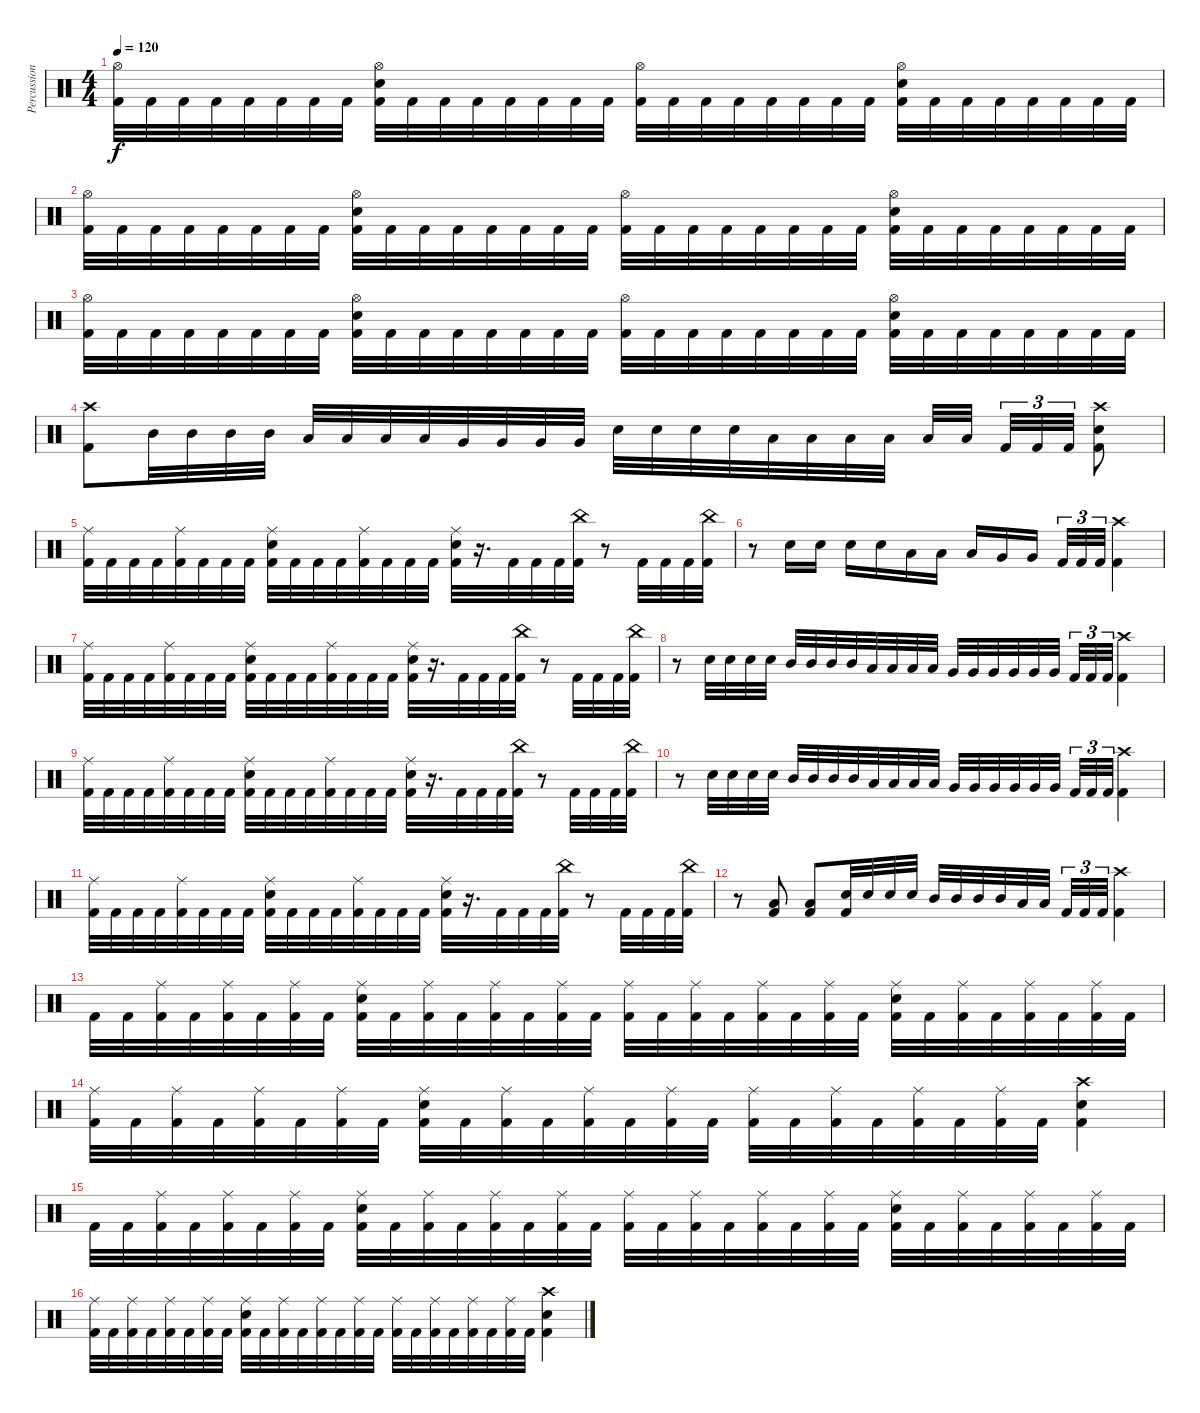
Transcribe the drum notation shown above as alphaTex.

\track ("Percussion" "Percussion") {instrument percussion}
\staff {score}
\articulation defaults
\ts (4 4)
\tempo 120
\clef neutral
\ks c
("Hi-Hat (open)" "Kick (hit) 2").32{dy f} "Kick (hit) 2".32 "Kick (hit) 2".32 "Kick (hit) 2".32 "Kick (hit) 2".32 "Kick (hit) 2".32 "Kick (hit) 2".32 "Kick (hit) 2".32 ("Hi-Hat (open)" "Snare (hit) 2" "Kick (hit) 2").32 "Kick (hit) 2".32 "Kick (hit) 2".32 "Kick (hit) 2".32 "Kick (hit) 2".32 "Kick (hit) 2".32 "Kick (hit) 2".32 "Kick (hit) 2".32 ("Hi-Hat (open)" "Kick (hit) 2").32 "Kick (hit) 2".32 "Kick (hit) 2".32 "Kick (hit) 2".32 "Kick (hit) 2".32 "Kick (hit) 2".32 "Kick (hit) 2".32 "Kick (hit) 2".32 ("Hi-Hat (open)" "Snare (hit) 2" "Kick (hit) 2").32 "Kick (hit) 2".32 "Kick (hit) 2".32 "Kick (hit) 2".32 "Kick (hit) 2".32 "Kick (hit) 2".32 "Kick (hit) 2".32 "Kick (hit) 2".32 |
("Hi-Hat (open)" "Kick (hit) 2").32 "Kick (hit) 2".32 "Kick (hit) 2".32 "Kick (hit) 2".32 "Kick (hit) 2".32 "Kick (hit) 2".32 "Kick (hit) 2".32 "Kick (hit) 2".32 ("Hi-Hat (open)" "Snare (hit) 2" "Kick (hit) 2").32 "Kick (hit) 2".32 "Kick (hit) 2".32 "Kick (hit) 2".32 "Kick (hit) 2".32 "Kick (hit) 2".32 "Kick (hit) 2".32 "Kick (hit) 2".32 ("Hi-Hat (open)" "Kick (hit) 2").32 "Kick (hit) 2".32 "Kick (hit) 2".32 "Kick (hit) 2".32 "Kick (hit) 2".32 "Kick (hit) 2".32 "Kick (hit) 2".32 "Kick (hit) 2".32 ("Hi-Hat (open)" "Snare (hit) 2" "Kick (hit) 2").32 "Kick (hit) 2".32 "Kick (hit) 2".32 "Kick (hit) 2".32 "Kick (hit) 2".32 "Kick (hit) 2".32 "Kick (hit) 2".32 "Kick (hit) 2".32 |
("Hi-Hat (open)" "Kick (hit) 2").32 "Kick (hit) 2".32 "Kick (hit) 2".32 "Kick (hit) 2".32 "Kick (hit) 2".32 "Kick (hit) 2".32 "Kick (hit) 2".32 "Kick (hit) 2".32 ("Hi-Hat (open)" "Snare (hit) 2" "Kick (hit) 2").32 "Kick (hit) 2".32 "Kick (hit) 2".32 "Kick (hit) 2".32 "Kick (hit) 2".32 "Kick (hit) 2".32 "Kick (hit) 2".32 "Kick (hit) 2".32 ("Hi-Hat (open)" "Kick (hit) 2").32 "Kick (hit) 2".32 "Kick (hit) 2".32 "Kick (hit) 2".32 "Kick (hit) 2".32 "Kick (hit) 2".32 "Kick (hit) 2".32 "Kick (hit) 2".32 ("Hi-Hat (open)" "Snare (hit) 2" "Kick (hit) 2").32 "Kick (hit) 2".32 "Kick (hit) 2".32 "Kick (hit) 2".32 "Kick (hit) 2".32 "Kick (hit) 2".32 "Kick (hit) 2".32 "Kick (hit) 2".32 |
("Crash high (hit)" "Kick (hit) 2").8 "Mid Tom (hit)".32 "Mid Tom (hit)".32 "Mid Tom (hit)".32 "Mid Tom (hit)".32 "Low Tom (hit)".32 "Low Tom (hit)".32 "Low Tom (hit)".32 "Low Tom (hit)".32 "Very Low Tom (hit)".32 "Very Low Tom (hit)".32 "Very Low Tom (hit)".32 "Very Low Tom (hit)".32 "Snare (hit) 2".32 "Snare (hit) 2".32 "Snare (hit) 2".32 "Snare (hit) 2".32 "Low Tom (hit)".32 "Low Tom (hit)".32 "Low Tom (hit)".32 "Low Tom (hit)".32 "Low Tom (hit)".32 "Low Tom (hit)".32 "Kick (hit) 2".32{tu (3 2)} "Kick (hit) 2".32{tu (3 2)} "Kick (hit) 2".32{tu (3 2)} ("Crash high (hit)" "Snare (hit) 2" "Kick (hit) 2").8 |
("Ride (middle)" "Kick (hit) 2").32 "Kick (hit) 2".32 "Kick (hit) 2".32 "Kick (hit) 2".32 ("Ride (middle)" "Kick (hit) 2").32 "Kick (hit) 2".32 "Kick (hit) 2".32 "Kick (hit) 2".32 ("Ride (middle)" "Snare (hit) 2" "Kick (hit) 2").32 "Kick (hit) 2".32 "Kick (hit) 2".32 "Kick (hit) 2".32 ("Ride (middle)" "Kick (hit) 2").32 "Kick (hit) 2".32 "Kick (hit) 2".32 "Kick (hit) 2".32 ("Ride (middle)" "Snare (hit) 2" "Kick (hit) 2").32 r.16{d} "Kick (hit) 2".32 "Kick (hit) 2".32 "Kick (hit) 2".32 ("China (hit)" "Kick (hit) 2").32 r.8 "Kick (hit) 2".32 "Kick (hit) 2".32 "Kick (hit) 2".32 ("China (hit)" "Kick (hit) 2").32 |
r.8 "Snare (hit) 2".16 "Snare (hit) 2".16 "Snare (hit) 2".16 "Snare (hit) 2".16 "Low Tom (hit)".16 "Low Tom (hit)".16 "Low Tom (hit)".16 "Very Low Tom (hit)".16 "Very Low Tom (hit)".16 "Kick (hit) 2".32{tu (3 2)} "Kick (hit) 2".32{tu (3 2)} "Kick (hit) 2".32{tu (3 2)} ("Crash high (hit)" "Kick (hit) 2").4 |
("Ride (middle)" "Kick (hit) 2").32 "Kick (hit) 2".32 "Kick (hit) 2".32 "Kick (hit) 2".32 ("Ride (middle)" "Kick (hit) 2").32 "Kick (hit) 2".32 "Kick (hit) 2".32 "Kick (hit) 2".32 ("Ride (middle)" "Snare (hit) 2" "Kick (hit) 2").32 "Kick (hit) 2".32 "Kick (hit) 2".32 "Kick (hit) 2".32 ("Ride (middle)" "Kick (hit) 2").32 "Kick (hit) 2".32 "Kick (hit) 2".32 "Kick (hit) 2".32 ("Ride (middle)" "Snare (hit) 2" "Kick (hit) 2").32 r.16{d} "Kick (hit) 2".32 "Kick (hit) 2".32 "Kick (hit) 2".32 ("China (hit)" "Kick (hit) 2").32 r.8 "Kick (hit) 2".32 "Kick (hit) 2".32 "Kick (hit) 2".32 ("China (hit)" "Kick (hit) 2").32 |
r.8 "Snare (hit) 2".32 "Snare (hit) 2".32 "Snare (hit) 2".32 "Snare (hit) 2".32 "Mid Tom (hit)".32 "Mid Tom (hit)".32 "Mid Tom (hit)".32 "Mid Tom (hit)".32 "Low Tom (hit)".32 "Low Tom (hit)".32 "Low Tom (hit)".32 "Low Tom (hit)".32 "Very Low Tom (hit)".32 "Very Low Tom (hit)".32 "Very Low Tom (hit)".32 "Very Low Tom (hit)".32 "Very Low Tom (hit)".32 "Very Low Tom (hit)".32 "Kick (hit) 2".32{tu (3 2)} "Kick (hit) 2".32{tu (3 2)} "Kick (hit) 2".32{tu (3 2)} ("Crash high (hit)" "Kick (hit) 2").4 |
("Ride (middle)" "Kick (hit) 2").32 "Kick (hit) 2".32 "Kick (hit) 2".32 "Kick (hit) 2".32 ("Ride (middle)" "Kick (hit) 2").32 "Kick (hit) 2".32 "Kick (hit) 2".32 "Kick (hit) 2".32 ("Ride (middle)" "Snare (hit) 2" "Kick (hit) 2").32 "Kick (hit) 2".32 "Kick (hit) 2".32 "Kick (hit) 2".32 ("Ride (middle)" "Kick (hit) 2").32 "Kick (hit) 2".32 "Kick (hit) 2".32 "Kick (hit) 2".32 ("Ride (middle)" "Snare (hit) 2" "Kick (hit) 2").32 r.16{d} "Kick (hit) 2".32 "Kick (hit) 2".32 "Kick (hit) 2".32 ("China (hit)" "Kick (hit) 2").32 r.8 "Kick (hit) 2".32 "Kick (hit) 2".32 "Kick (hit) 2".32 ("China (hit)" "Kick (hit) 2").32 |
r.8 "Snare (hit) 2".32 "Snare (hit) 2".32 "Snare (hit) 2".32 "Snare (hit) 2".32 "Mid Tom (hit)".32 "Mid Tom (hit)".32 "Mid Tom (hit)".32 "Mid Tom (hit)".32 "Low Tom (hit)".32 "Low Tom (hit)".32 "Low Tom (hit)".32 "Low Tom (hit)".32 "Very Low Tom (hit)".32 "Very Low Tom (hit)".32 "Very Low Tom (hit)".32 "Very Low Tom (hit)".32 "Very Low Tom (hit)".32 "Very Low Tom (hit)".32 "Kick (hit) 2".32{tu (3 2)} "Kick (hit) 2".32{tu (3 2)} "Kick (hit) 2".32{tu (3 2)} ("Crash high (hit)" "Kick (hit) 2").4 |
("Ride (middle)" "Kick (hit) 2").32 "Kick (hit) 2".32 "Kick (hit) 2".32 "Kick (hit) 2".32 ("Ride (middle)" "Kick (hit) 2").32 "Kick (hit) 2".32 "Kick (hit) 2".32 "Kick (hit) 2".32 ("Ride (middle)" "Snare (hit) 2" "Kick (hit) 2").32 "Kick (hit) 2".32 "Kick (hit) 2".32 "Kick (hit) 2".32 ("Ride (middle)" "Kick (hit) 2").32 "Kick (hit) 2".32 "Kick (hit) 2".32 "Kick (hit) 2".32 ("Ride (middle)" "Snare (hit) 2" "Kick (hit) 2").32 r.16{d} "Kick (hit) 2".32 "Kick (hit) 2".32 "Kick (hit) 2".32 ("China (hit)" "Kick (hit) 2").32 r.8 "Kick (hit) 2".32 "Kick (hit) 2".32 "Kick (hit) 2".32 ("China (hit)" "Kick (hit) 2").32 |
r.8 ("Low Tom (hit)" "Kick (hit) 2").8 ("Low Tom (hit)" "Kick (hit) 2").8 ("Snare (hit) 2" "Kick (hit) 2").32 "Snare (hit) 2".32 "Snare (hit) 2".32 "Snare (hit) 2".32 "Mid Tom (hit)".32 "Mid Tom (hit)".32 "Mid Tom (hit)".32 "Mid Tom (hit)".32 "Low Tom (hit)".32 "Low Tom (hit)".32 "Kick (hit) 2".32{tu (3 2)} "Kick (hit) 2".32{tu (3 2)} "Kick (hit) 2".32{tu (3 2)} ("Crash high (hit)" "Kick (hit) 2").4 |
"Kick (hit) 2".32 "Kick (hit) 2".32 ("Ride (middle)" "Kick (hit) 2").32 "Kick (hit) 2".32 ("Ride (middle)" "Kick (hit) 2").32 "Kick (hit) 2".32 ("Ride (middle)" "Kick (hit) 2").32 "Kick (hit) 2".32 ("Ride (middle)" "Snare (hit) 2" "Kick (hit) 2").32 "Kick (hit) 2".32 ("Ride (middle)" "Kick (hit) 2").32 "Kick (hit) 2".32 ("Ride (middle)" "Kick (hit) 2").32 "Kick (hit) 2".32 ("Ride (middle)" "Kick (hit) 2").32 "Kick (hit) 2".32 ("Ride (middle)" "Kick (hit) 2").32 "Kick (hit) 2".32 ("Ride (middle)" "Kick (hit) 2").32 "Kick (hit) 2".32 ("Ride (middle)" "Kick (hit) 2").32 "Kick (hit) 2".32 ("Ride (middle)" "Kick (hit) 2").32 "Kick (hit) 2".32 ("Ride (middle)" "Snare (hit) 2" "Kick (hit) 2").32 "Kick (hit) 2".32 ("Ride (middle)" "Kick (hit) 2").32 "Kick (hit) 2".32 ("Ride (middle)" "Kick (hit) 2").32 "Kick (hit) 2".32 ("Ride (middle)" "Kick (hit) 2").32 "Kick (hit) 2".32 |
("Ride (middle)" "Kick (hit) 2").32 "Kick (hit) 2".32 ("Ride (middle)" "Kick (hit) 2").32 "Kick (hit) 2".32 ("Ride (middle)" "Kick (hit) 2").32 "Kick (hit) 2".32 ("Ride (middle)" "Kick (hit) 2").32 "Kick (hit) 2".32 ("Ride (middle)" "Snare (hit) 2" "Kick (hit) 2").32 "Kick (hit) 2".32 ("Ride (middle)" "Kick (hit) 2").32 "Kick (hit) 2".32 ("Ride (middle)" "Kick (hit) 2").32 "Kick (hit) 2".32 ("Ride (middle)" "Kick (hit) 2").32 "Kick (hit) 2".32 ("Ride (middle)" "Kick (hit) 2").32 "Kick (hit) 2".32 ("Ride (middle)" "Kick (hit) 2").32 "Kick (hit) 2".32 ("Ride (middle)" "Kick (hit) 2").32 "Kick (hit) 2".32 ("Ride (middle)" "Kick (hit) 2").32 "Kick (hit) 2".32 ("Crash high (hit)" "Snare (hit) 2" "Kick (hit) 2").4 |
"Kick (hit) 2".32 "Kick (hit) 2".32 ("Ride (middle)" "Kick (hit) 2").32 "Kick (hit) 2".32 ("Ride (middle)" "Kick (hit) 2").32 "Kick (hit) 2".32 ("Ride (middle)" "Kick (hit) 2").32 "Kick (hit) 2".32 ("Ride (middle)" "Snare (hit) 2" "Kick (hit) 2").32 "Kick (hit) 2".32 ("Ride (middle)" "Kick (hit) 2").32 "Kick (hit) 2".32 ("Ride (middle)" "Kick (hit) 2").32 "Kick (hit) 2".32 ("Ride (middle)" "Kick (hit) 2").32 "Kick (hit) 2".32 ("Ride (middle)" "Kick (hit) 2").32 "Kick (hit) 2".32 ("Ride (middle)" "Kick (hit) 2").32 "Kick (hit) 2".32 ("Ride (middle)" "Kick (hit) 2").32 "Kick (hit) 2".32 ("Ride (middle)" "Kick (hit) 2").32 "Kick (hit) 2".32 ("Ride (middle)" "Snare (hit) 2" "Kick (hit) 2").32 "Kick (hit) 2".32 ("Ride (middle)" "Kick (hit) 2").32 "Kick (hit) 2".32 ("Ride (middle)" "Kick (hit) 2").32 "Kick (hit) 2".32 ("Ride (middle)" "Kick (hit) 2").32 "Kick (hit) 2".32 |
("Ride (middle)" "Kick (hit) 2").32 "Kick (hit) 2".32 ("Ride (middle)" "Kick (hit) 2").32 "Kick (hit) 2".32 ("Ride (middle)" "Kick (hit) 2").32 "Kick (hit) 2".32 ("Ride (middle)" "Kick (hit) 2").32 "Kick (hit) 2".32 ("Ride (middle)" "Snare (hit) 2" "Kick (hit) 2").32 "Kick (hit) 2".32 ("Ride (middle)" "Kick (hit) 2").32 "Kick (hit) 2".32 ("Ride (middle)" "Kick (hit) 2").32 "Kick (hit) 2".32 ("Ride (middle)" "Kick (hit) 2").32 "Kick (hit) 2".32 ("Ride (middle)" "Kick (hit) 2").32 "Kick (hit) 2".32 ("Ride (middle)" "Kick (hit) 2").32 "Kick (hit) 2".32 ("Ride (middle)" "Kick (hit) 2").32 "Kick (hit) 2".32 ("Ride (middle)" "Kick (hit) 2").32 "Kick (hit) 2".32 ("Crash high (hit)" "Snare (hit) 2" "Kick (hit) 2").4
